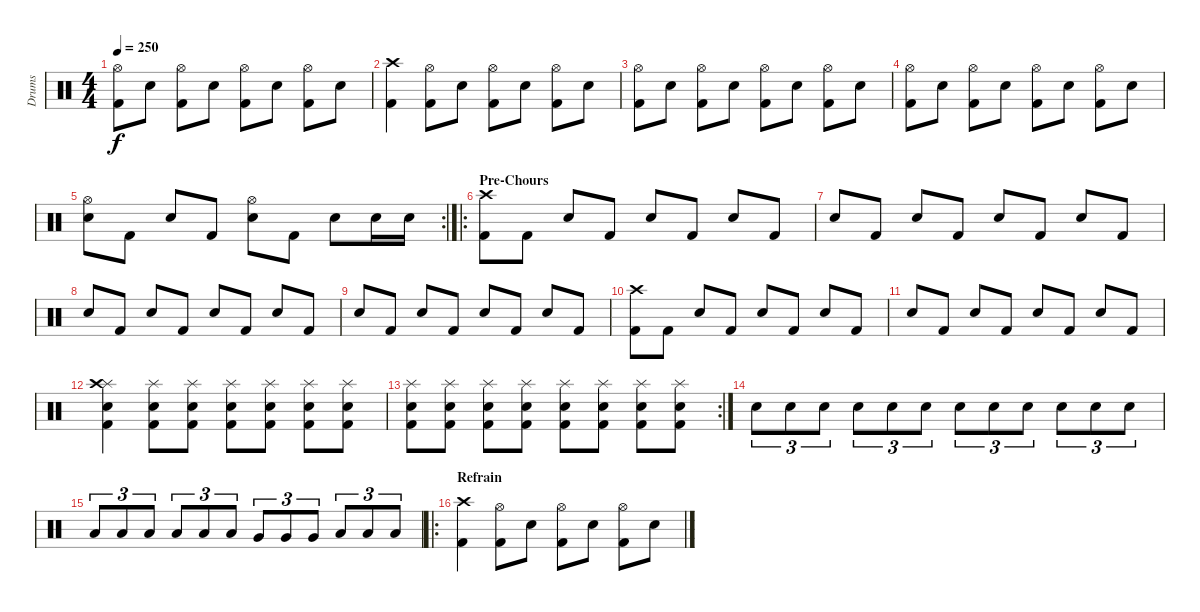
\track ("Drums" "Drums") {instrument percussion}
\staff {score}
\articulation defaults
\ts (4 4)
\tempo 250
\clef neutral
\ks c
("Hi-Hat (open)" "Kick (hit) 2").8{dy f} "Snare (hit) 2".8 ("Hi-Hat (open)" "Kick (hit) 2").8 "Snare (hit) 2".8 ("Hi-Hat (open)" "Kick (hit) 2").8 "Snare (hit) 2".8 ("Hi-Hat (open)" "Kick (hit) 2").8 "Snare (hit) 2".8 |
("Crash high (hit)" "Kick (hit) 2").4 ("Hi-Hat (open)" "Kick (hit) 2").8 "Snare (hit) 2".8 ("Hi-Hat (open)" "Kick (hit) 2").8 "Snare (hit) 2".8 ("Hi-Hat (open)" "Kick (hit) 2").8 "Snare (hit) 2".8 |
("Hi-Hat (open)" "Kick (hit) 2").8 "Snare (hit) 2".8 ("Hi-Hat (open)" "Kick (hit) 2").8 "Snare (hit) 2".8 ("Hi-Hat (open)" "Kick (hit) 2").8 "Snare (hit) 2".8 ("Hi-Hat (open)" "Kick (hit) 2").8 "Snare (hit) 2".8 |
("Hi-Hat (open)" "Kick (hit) 2").8 "Snare (hit) 2".8 ("Hi-Hat (open)" "Kick (hit) 2").8 "Snare (hit) 2".8 ("Hi-Hat (open)" "Kick (hit) 2").8 "Snare (hit) 2".8 ("Hi-Hat (open)" "Kick (hit) 2").8 "Snare (hit) 2".8 |
\rc 2
("Hi-Hat (open)" "Snare (hit) 2").8 "Kick (hit) 2".8 "Snare (hit) 2".8 "Kick (hit) 2".8 ("Hi-Hat (open)" "Snare (hit) 2").8 "Kick (hit) 2".8 "Snare (hit) 2".8 "Snare (hit) 2".16 "Snare (hit) 2".16 |
\ro
\section ("" "Pre-Chours")
("Kick (hit) 2" "Crash high (hit)").8 "Kick (hit) 2".8 "Snare (hit) 2".8 "Kick (hit) 2".8 "Snare (hit) 2".8 "Kick (hit) 2".8 "Snare (hit) 2".8 "Kick (hit) 2".8 |
"Snare (hit) 2".8 "Kick (hit) 2".8 "Snare (hit) 2".8 "Kick (hit) 2".8 "Snare (hit) 2".8 "Kick (hit) 2".8 "Snare (hit) 2".8 "Kick (hit) 2".8 |
"Snare (hit) 2".8 "Kick (hit) 2".8 "Snare (hit) 2".8 "Kick (hit) 2".8 "Snare (hit) 2".8 "Kick (hit) 2".8 "Snare (hit) 2".8 "Kick (hit) 2".8 |
"Snare (hit) 2".8 "Kick (hit) 2".8 "Snare (hit) 2".8 "Kick (hit) 2".8 "Snare (hit) 2".8 "Kick (hit) 2".8 "Snare (hit) 2".8 "Kick (hit) 2".8 |
("Kick (hit) 2" "Crash high (hit)").8 "Kick (hit) 2".8 "Snare (hit) 2".8 "Kick (hit) 2".8 "Snare (hit) 2".8 "Kick (hit) 2".8 "Snare (hit) 2".8 "Kick (hit) 2".8 |
"Snare (hit) 2".8 "Kick (hit) 2".8 "Snare (hit) 2".8 "Kick (hit) 2".8 "Snare (hit) 2".8 "Kick (hit) 2".8 "Snare (hit) 2".8 "Kick (hit) 2".8 |
("Splash (hit)" "Snare (hit) 2" "Kick (hit) 2" "Crash high (hit)").4 ("Splash (hit)" "Snare (hit) 2" "Kick (hit) 2").8 ("Splash (hit)" "Snare (hit) 2" "Kick (hit) 2").8 ("Splash (hit)" "Snare (hit) 2" "Kick (hit) 2").8 ("Splash (hit)" "Snare (hit) 2" "Kick (hit) 2").8 ("Splash (hit)" "Snare (hit) 2" "Kick (hit) 2").8 ("Splash (hit)" "Snare (hit) 2" "Kick (hit) 2").8 |
\rc 2
("Splash (hit)" "Snare (hit) 2" "Kick (hit) 2").8 ("Splash (hit)" "Snare (hit) 2" "Kick (hit) 2").8 ("Splash (hit)" "Snare (hit) 2" "Kick (hit) 2").8 ("Splash (hit)" "Snare (hit) 2" "Kick (hit) 2").8 ("Splash (hit)" "Snare (hit) 2" "Kick (hit) 2").8 ("Splash (hit)" "Snare (hit) 2" "Kick (hit) 2").8 ("Splash (hit)" "Snare (hit) 2" "Kick (hit) 2").8 ("Splash (hit)" "Snare (hit) 2" "Kick (hit) 2").8 |
"Snare (hit) 2".8{tu (3 2)} "Snare (hit) 2".8{tu (3 2)} "Snare (hit) 2".8{tu (3 2)} "Snare (hit) 2".8{tu (3 2)} "Snare (hit) 2".8{tu (3 2)} "Snare (hit) 2".8{tu (3 2)} "Snare (hit) 2".8{tu (3 2)} "Snare (hit) 2".8{tu (3 2)} "Snare (hit) 2".8{tu (3 2)} "Snare (hit) 2".8{tu (3 2)} "Snare (hit) 2".8{tu (3 2)} "Snare (hit) 2".8{tu (3 2)} |
"Low Tom (hit)".8{tu (3 2)} "Low Tom (hit)".8{tu (3 2)} "Low Tom (hit)".8{tu (3 2)} "Low Tom (hit)".8{tu (3 2)} "Low Tom (hit)".8{tu (3 2)} "Low Tom (hit)".8{tu (3 2)} "Very Low Tom (hit)".8{tu (3 2)} "Very Low Tom (hit)".8{tu (3 2)} "Very Low Tom (hit)".8{tu (3 2)} "Low Floor Tom (hit)".8{tu (3 2)} "Low Floor Tom (hit)".8{tu (3 2)} "Low Floor Tom (hit)".8{tu (3 2)} |
\ro
\section ("" "Refrain")
("Crash high (hit)" "Kick (hit) 2").4 ("Hi-Hat (open)" "Kick (hit) 2").8 "Snare (hit) 2".8 ("Hi-Hat (open)" "Kick (hit) 2").8 "Snare (hit) 2".8 ("Hi-Hat (open)" "Kick (hit) 2").8 "Snare (hit) 2".8
